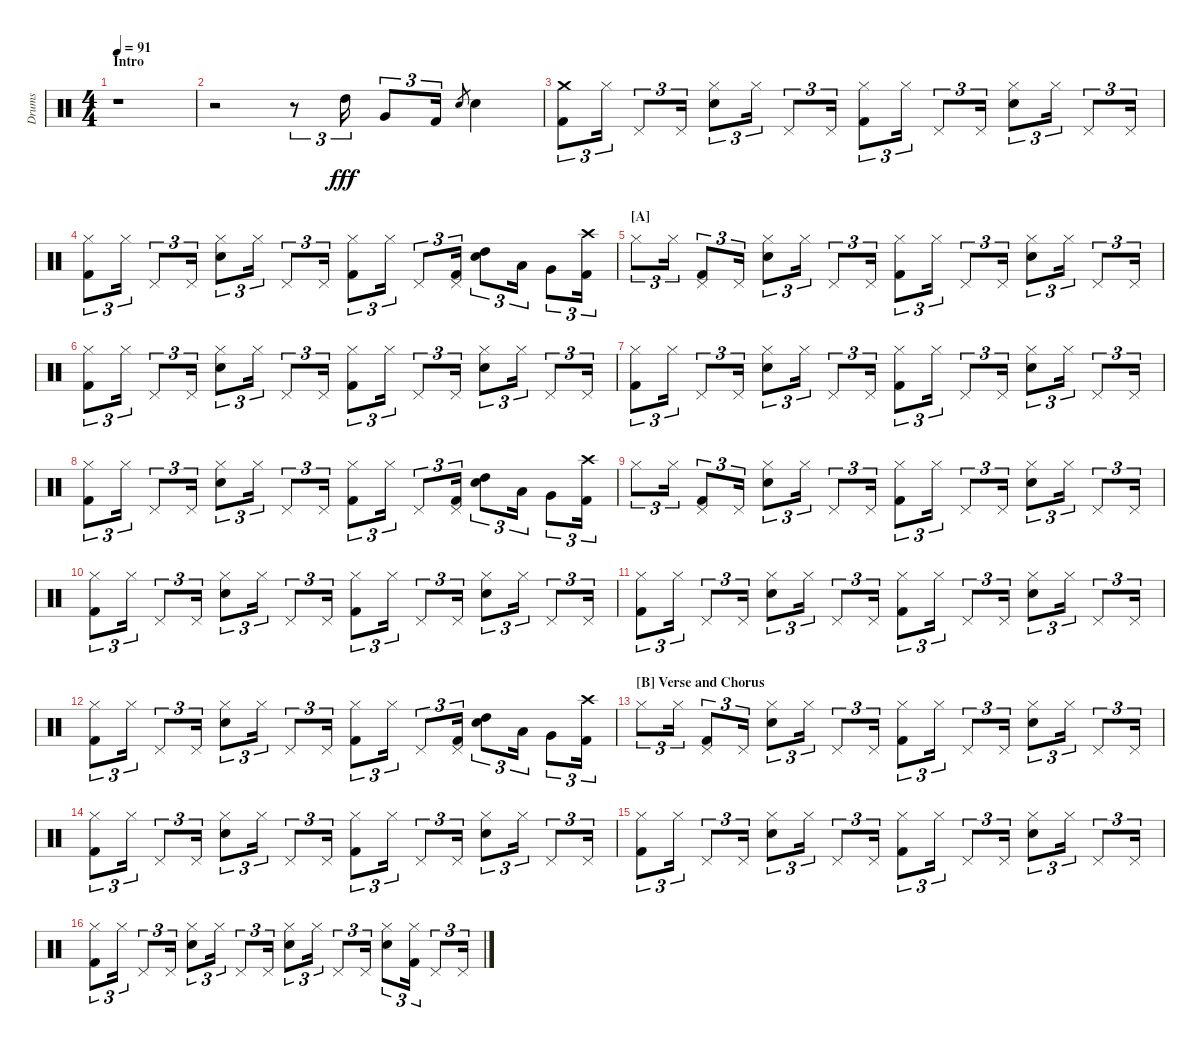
\track ("Drums" "Drums") {instrument percussion}
\staff {score}
\articulation defaults
\ts (4 4)
\section ("" "Intro")
\tempo 91
\clef neutral
\ks c
r.1{dy fff} |
r.2 r.8{tu (3 2)} "High Tom (hit)".16{tu (3 2)} "Very Low Tom (hit)".8{tu (3 2)} "Kick (hit) 2".16{tu (3 2)} "Electric Snare (hit)".8{gr} "Electric Snare (hit)".4 |
("Crash medium (hit)" "Kick (hit) 2").8{tu (3 2)} "Hi-Hat (closed)".16{tu (3 2)} "Pedal Hi-Hat (hit)".8{tu (3 2)} "Pedal Hi-Hat (hit)".16{tu (3 2)} ("Snare (hit) 2" "Hi-Hat (closed)").8{tu (3 2)} "Hi-Hat (closed)".16{tu (3 2)} "Pedal Hi-Hat (hit)".8{tu (3 2)} "Pedal Hi-Hat (hit)".16{tu (3 2)} ("Kick (hit) 2" "Hi-Hat (closed)").8{tu (3 2)} "Hi-Hat (closed)".16{tu (3 2)} "Pedal Hi-Hat (hit)".8{tu (3 2)} "Pedal Hi-Hat (hit)".16{tu (3 2)} ("Snare (hit) 2" "Hi-Hat (closed)").8{tu (3 2)} "Hi-Hat (closed)".16{tu (3 2)} "Pedal Hi-Hat (hit)".8{tu (3 2)} "Pedal Hi-Hat (hit)".16{tu (3 2)} |
("Hi-Hat (closed)" "Kick (hit) 2").8{tu (3 2)} "Hi-Hat (closed)".16{tu (3 2)} "Pedal Hi-Hat (hit)".8{tu (3 2)} "Pedal Hi-Hat (hit)".16{tu (3 2)} ("Snare (hit) 2" "Hi-Hat (closed)").8{tu (3 2)} "Hi-Hat (closed)".16{tu (3 2)} "Pedal Hi-Hat (hit)".8{tu (3 2)} "Pedal Hi-Hat (hit)".16{tu (3 2)} ("Kick (hit) 2" "Hi-Hat (closed)").8{tu (3 2)} "Hi-Hat (closed)".16{tu (3 2)} "Pedal Hi-Hat (hit)".8{tu (3 2)} ("Kick (hit) 2" "Pedal Hi-Hat (hit)").16{tu (3 2)} ("Snare (hit) 2" "High Tom (hit)").8{tu (3 2)} "Low Tom (hit)".16{tu (3 2)} "Very Low Tom (hit)".8{tu (3 2)} ("Crash high (hit)" "Kick (hit) 2").16{tu (3 2)} |
\section ("" "[A]")
"Hi-Hat (closed)".8{tu (3 2)} "Hi-Hat (closed)".16{tu (3 2)} ("Kick (hit) 2" "Pedal Hi-Hat (hit)").8{tu (3 2)} "Pedal Hi-Hat (hit)".16{tu (3 2)} ("Snare (hit) 2" "Hi-Hat (closed)").8{tu (3 2)} "Hi-Hat (closed)".16{tu (3 2)} "Pedal Hi-Hat (hit)".8{tu (3 2)} "Pedal Hi-Hat (hit)".16{tu (3 2)} ("Kick (hit) 2" "Hi-Hat (closed)").8{tu (3 2)} "Hi-Hat (closed)".16{tu (3 2)} "Pedal Hi-Hat (hit)".8{tu (3 2)} "Pedal Hi-Hat (hit)".16{tu (3 2)} ("Snare (hit) 2" "Hi-Hat (closed)").8{tu (3 2)} "Hi-Hat (closed)".16{tu (3 2)} "Pedal Hi-Hat (hit)".8{tu (3 2)} "Pedal Hi-Hat (hit)".16{tu (3 2)} |
("Hi-Hat (closed)" "Kick (hit) 2").8{tu (3 2)} "Hi-Hat (closed)".16{tu (3 2)} "Pedal Hi-Hat (hit)".8{tu (3 2)} "Pedal Hi-Hat (hit)".16{tu (3 2)} ("Snare (hit) 2" "Hi-Hat (closed)").8{tu (3 2)} "Hi-Hat (closed)".16{tu (3 2)} "Pedal Hi-Hat (hit)".8{tu (3 2)} "Pedal Hi-Hat (hit)".16{tu (3 2)} ("Kick (hit) 2" "Hi-Hat (closed)").8{tu (3 2)} "Hi-Hat (closed)".16{tu (3 2)} "Pedal Hi-Hat (hit)".8{tu (3 2)} "Pedal Hi-Hat (hit)".16{tu (3 2)} ("Snare (hit) 2" "Hi-Hat (closed)").8{tu (3 2)} "Hi-Hat (closed)".16{tu (3 2)} "Pedal Hi-Hat (hit)".8{tu (3 2)} "Pedal Hi-Hat (hit)".16{tu (3 2)} |
("Hi-Hat (closed)" "Kick (hit) 2").8{tu (3 2)} "Hi-Hat (closed)".16{tu (3 2)} "Pedal Hi-Hat (hit)".8{tu (3 2)} "Pedal Hi-Hat (hit)".16{tu (3 2)} ("Snare (hit) 2" "Hi-Hat (closed)").8{tu (3 2)} "Hi-Hat (closed)".16{tu (3 2)} "Pedal Hi-Hat (hit)".8{tu (3 2)} "Pedal Hi-Hat (hit)".16{tu (3 2)} ("Kick (hit) 2" "Hi-Hat (closed)").8{tu (3 2)} "Hi-Hat (closed)".16{tu (3 2)} "Pedal Hi-Hat (hit)".8{tu (3 2)} "Pedal Hi-Hat (hit)".16{tu (3 2)} ("Snare (hit) 2" "Hi-Hat (closed)").8{tu (3 2)} "Hi-Hat (closed)".16{tu (3 2)} "Pedal Hi-Hat (hit)".8{tu (3 2)} "Pedal Hi-Hat (hit)".16{tu (3 2)} |
("Hi-Hat (closed)" "Kick (hit) 2").8{tu (3 2)} "Hi-Hat (closed)".16{tu (3 2)} "Pedal Hi-Hat (hit)".8{tu (3 2)} "Pedal Hi-Hat (hit)".16{tu (3 2)} ("Snare (hit) 2" "Hi-Hat (closed)").8{tu (3 2)} "Hi-Hat (closed)".16{tu (3 2)} "Pedal Hi-Hat (hit)".8{tu (3 2)} "Pedal Hi-Hat (hit)".16{tu (3 2)} ("Kick (hit) 2" "Hi-Hat (closed)").8{tu (3 2)} "Hi-Hat (closed)".16{tu (3 2)} "Pedal Hi-Hat (hit)".8{tu (3 2)} ("Kick (hit) 2" "Pedal Hi-Hat (hit)").16{tu (3 2)} ("Snare (hit) 2" "High Tom (hit)").8{tu (3 2)} "Low Tom (hit)".16{tu (3 2)} "Very Low Tom (hit)".8{tu (3 2)} ("Crash high (hit)" "Kick (hit) 2").16{tu (3 2)} |
"Hi-Hat (closed)".8{tu (3 2)} "Hi-Hat (closed)".16{tu (3 2)} ("Kick (hit) 2" "Pedal Hi-Hat (hit)").8{tu (3 2)} "Pedal Hi-Hat (hit)".16{tu (3 2)} ("Snare (hit) 2" "Hi-Hat (closed)").8{tu (3 2)} "Hi-Hat (closed)".16{tu (3 2)} "Pedal Hi-Hat (hit)".8{tu (3 2)} "Pedal Hi-Hat (hit)".16{tu (3 2)} ("Kick (hit) 2" "Hi-Hat (closed)").8{tu (3 2)} "Hi-Hat (closed)".16{tu (3 2)} "Pedal Hi-Hat (hit)".8{tu (3 2)} "Pedal Hi-Hat (hit)".16{tu (3 2)} ("Snare (hit) 2" "Hi-Hat (closed)").8{tu (3 2)} "Hi-Hat (closed)".16{tu (3 2)} "Pedal Hi-Hat (hit)".8{tu (3 2)} "Pedal Hi-Hat (hit)".16{tu (3 2)} |
("Hi-Hat (closed)" "Kick (hit) 2").8{tu (3 2)} "Hi-Hat (closed)".16{tu (3 2)} "Pedal Hi-Hat (hit)".8{tu (3 2)} "Pedal Hi-Hat (hit)".16{tu (3 2)} ("Snare (hit) 2" "Hi-Hat (closed)").8{tu (3 2)} "Hi-Hat (closed)".16{tu (3 2)} "Pedal Hi-Hat (hit)".8{tu (3 2)} "Pedal Hi-Hat (hit)".16{tu (3 2)} ("Kick (hit) 2" "Hi-Hat (closed)").8{tu (3 2)} "Hi-Hat (closed)".16{tu (3 2)} "Pedal Hi-Hat (hit)".8{tu (3 2)} "Pedal Hi-Hat (hit)".16{tu (3 2)} ("Snare (hit) 2" "Hi-Hat (closed)").8{tu (3 2)} "Hi-Hat (closed)".16{tu (3 2)} "Pedal Hi-Hat (hit)".8{tu (3 2)} "Pedal Hi-Hat (hit)".16{tu (3 2)} |
("Hi-Hat (closed)" "Kick (hit) 2").8{tu (3 2)} "Hi-Hat (closed)".16{tu (3 2)} "Pedal Hi-Hat (hit)".8{tu (3 2)} "Pedal Hi-Hat (hit)".16{tu (3 2)} ("Snare (hit) 2" "Hi-Hat (closed)").8{tu (3 2)} "Hi-Hat (closed)".16{tu (3 2)} "Pedal Hi-Hat (hit)".8{tu (3 2)} "Pedal Hi-Hat (hit)".16{tu (3 2)} ("Kick (hit) 2" "Hi-Hat (closed)").8{tu (3 2)} "Hi-Hat (closed)".16{tu (3 2)} "Pedal Hi-Hat (hit)".8{tu (3 2)} "Pedal Hi-Hat (hit)".16{tu (3 2)} ("Snare (hit) 2" "Hi-Hat (closed)").8{tu (3 2)} "Hi-Hat (closed)".16{tu (3 2)} "Pedal Hi-Hat (hit)".8{tu (3 2)} "Pedal Hi-Hat (hit)".16{tu (3 2)} |
("Hi-Hat (closed)" "Kick (hit) 2").8{tu (3 2)} "Hi-Hat (closed)".16{tu (3 2)} "Pedal Hi-Hat (hit)".8{tu (3 2)} "Pedal Hi-Hat (hit)".16{tu (3 2)} ("Snare (hit) 2" "Hi-Hat (closed)").8{tu (3 2)} "Hi-Hat (closed)".16{tu (3 2)} "Pedal Hi-Hat (hit)".8{tu (3 2)} "Pedal Hi-Hat (hit)".16{tu (3 2)} ("Kick (hit) 2" "Hi-Hat (closed)").8{tu (3 2)} "Hi-Hat (closed)".16{tu (3 2)} "Pedal Hi-Hat (hit)".8{tu (3 2)} ("Kick (hit) 2" "Pedal Hi-Hat (hit)").16{tu (3 2)} ("Snare (hit) 2" "High Tom (hit)").8{tu (3 2)} "Low Tom (hit)".16{tu (3 2)} "Very Low Tom (hit)".8{tu (3 2)} ("Crash high (hit)" "Kick (hit) 2").16{tu (3 2)} |
\section ("" "[B] Verse and Chorus")
"Hi-Hat (closed)".8{tu (3 2)} "Hi-Hat (closed)".16{tu (3 2)} ("Kick (hit) 2" "Pedal Hi-Hat (hit)").8{tu (3 2)} "Pedal Hi-Hat (hit)".16{tu (3 2)} ("Snare (hit) 2" "Hi-Hat (closed)").8{tu (3 2)} "Hi-Hat (closed)".16{tu (3 2)} "Pedal Hi-Hat (hit)".8{tu (3 2)} "Pedal Hi-Hat (hit)".16{tu (3 2)} ("Kick (hit) 2" "Hi-Hat (closed)").8{tu (3 2)} "Hi-Hat (closed)".16{tu (3 2)} "Pedal Hi-Hat (hit)".8{tu (3 2)} "Pedal Hi-Hat (hit)".16{tu (3 2)} ("Snare (hit) 2" "Hi-Hat (closed)").8{tu (3 2)} "Hi-Hat (closed)".16{tu (3 2)} "Pedal Hi-Hat (hit)".8{tu (3 2)} "Pedal Hi-Hat (hit)".16{tu (3 2)} |
("Hi-Hat (closed)" "Kick (hit) 2").8{tu (3 2)} "Hi-Hat (closed)".16{tu (3 2)} "Pedal Hi-Hat (hit)".8{tu (3 2)} "Pedal Hi-Hat (hit)".16{tu (3 2)} ("Snare (hit) 2" "Hi-Hat (closed)").8{tu (3 2)} "Hi-Hat (closed)".16{tu (3 2)} "Pedal Hi-Hat (hit)".8{tu (3 2)} "Pedal Hi-Hat (hit)".16{tu (3 2)} ("Kick (hit) 2" "Hi-Hat (closed)").8{tu (3 2)} "Hi-Hat (closed)".16{tu (3 2)} "Pedal Hi-Hat (hit)".8{tu (3 2)} "Pedal Hi-Hat (hit)".16{tu (3 2)} ("Snare (hit) 2" "Hi-Hat (closed)").8{tu (3 2)} "Hi-Hat (closed)".16{tu (3 2)} "Pedal Hi-Hat (hit)".8{tu (3 2)} "Pedal Hi-Hat (hit)".16{tu (3 2)} |
("Hi-Hat (closed)" "Kick (hit) 2").8{tu (3 2)} "Hi-Hat (closed)".16{tu (3 2)} "Pedal Hi-Hat (hit)".8{tu (3 2)} "Pedal Hi-Hat (hit)".16{tu (3 2)} ("Snare (hit) 2" "Hi-Hat (closed)").8{tu (3 2)} "Hi-Hat (closed)".16{tu (3 2)} "Pedal Hi-Hat (hit)".8{tu (3 2)} "Pedal Hi-Hat (hit)".16{tu (3 2)} ("Kick (hit) 2" "Hi-Hat (closed)").8{tu (3 2)} "Hi-Hat (closed)".16{tu (3 2)} "Pedal Hi-Hat (hit)".8{tu (3 2)} "Pedal Hi-Hat (hit)".16{tu (3 2)} ("Snare (hit) 2" "Hi-Hat (closed)").8{tu (3 2)} "Hi-Hat (closed)".16{tu (3 2)} "Pedal Hi-Hat (hit)".8{tu (3 2)} "Pedal Hi-Hat (hit)".16{tu (3 2)} |
("Hi-Hat (closed)" "Kick (hit) 2").8{tu (3 2)} "Hi-Hat (closed)".16{tu (3 2)} "Pedal Hi-Hat (hit)".8{tu (3 2)} "Pedal Hi-Hat (hit)".16{tu (3 2)} ("Snare (hit) 2" "Hi-Hat (closed)").8{tu (3 2)} "Hi-Hat (closed)".16{tu (3 2)} "Pedal Hi-Hat (hit)".8{tu (3 2)} "Pedal Hi-Hat (hit)".16{tu (3 2)} ("Hi-Hat (closed)" "Snare (hit) 2").8{tu (3 2)} "Hi-Hat (closed)".16{tu (3 2)} "Pedal Hi-Hat (hit)".8{tu (3 2)} "Pedal Hi-Hat (hit)".16{tu (3 2)} ("Hi-Hat (closed)" "Snare (hit) 2").8{tu (3 2)} ("Hi-Hat (closed)" "Kick (hit) 2").16{tu (3 2)} "Pedal Hi-Hat (hit)".8{tu (3 2)} "Pedal Hi-Hat (hit)".16{tu (3 2)}
